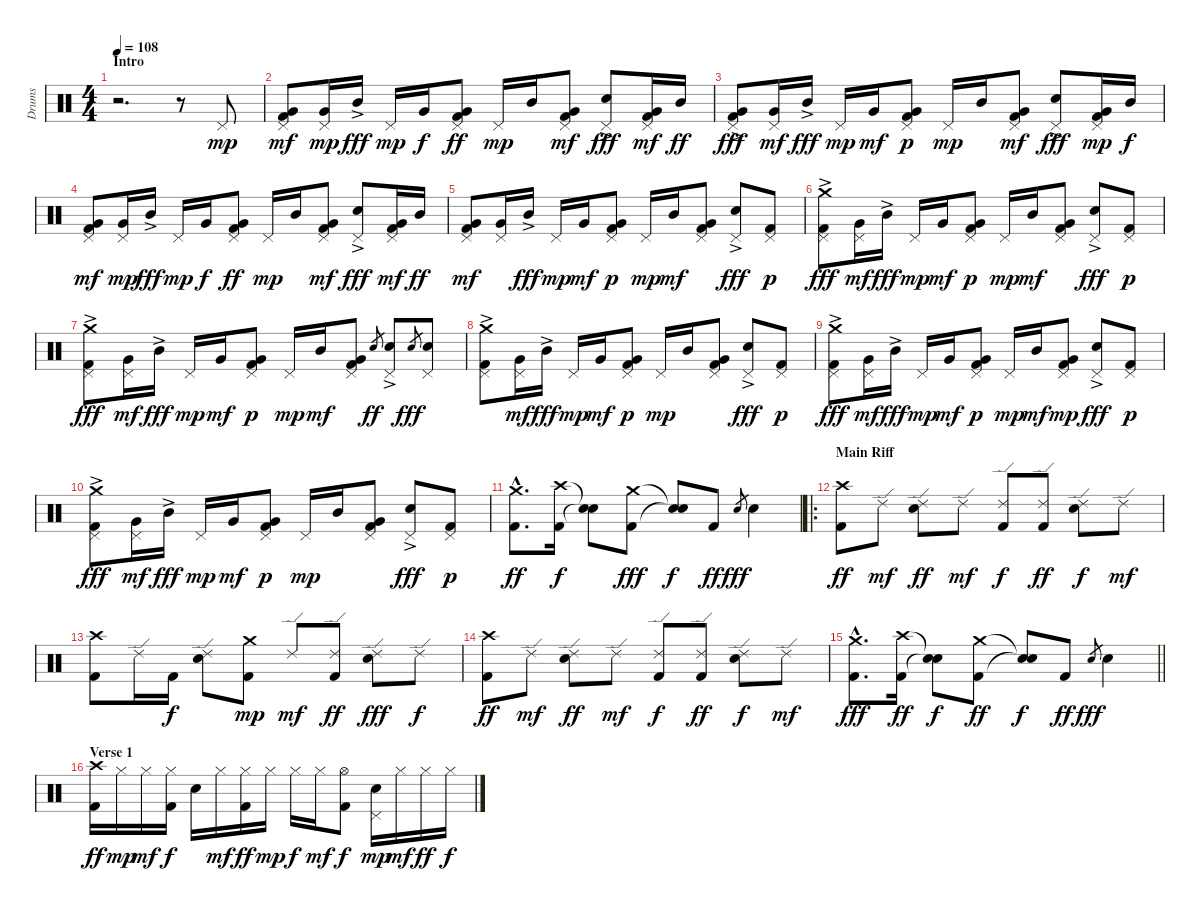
\track ("Drums" "Drums") {instrument percussion}
\staff {score}
\articulation defaults
\ts (4 4)
\section ("" "Intro")
\tempo 108
\clef neutral
\ks c
r.2{d dy mp} r.8 "Pedal Hi-Hat (hit)".8 |
("Pedal Hi-Hat (hit)" "Very Low Tom (hit)" "Kick (hit) 2").8{dy mf} ("Pedal Hi-Hat (hit)" "Very Low Tom (hit)").16{dy mp} "Mid Tom (hit)"{ac}.16{dy fff} "Pedal Hi-Hat (hit)".16{dy mp} "Very Low Tom (hit)".16{dy f} ("Pedal Hi-Hat (hit)" "Very Low Tom (hit)" "Kick (hit) 2").8{dy ff} "Pedal Hi-Hat (hit)".16{dy mp} "Mid Tom (hit)".16 ("Pedal Hi-Hat (hit)" "Very Low Tom (hit)" "Kick (hit) 2").8{dy mf} ("Pedal Hi-Hat (hit)" "Electric Snare (hit)"{ac}).8{dy fff} ("Pedal Hi-Hat (hit)" "Very Low Tom (hit)" "Kick (hit) 2").16{dy mf} "Mid Tom (hit)".16{dy ff} |
("Pedal Hi-Hat (hit)" "Very Low Tom (hit)"{ac} "Kick (hit) 2").8{dy fff} ("Pedal Hi-Hat (hit)" "Very Low Tom (hit)").16{dy mf} "Mid Tom (hit)"{ac}.16{dy fff} "Pedal Hi-Hat (hit)".16{dy mp} "Very Low Tom (hit)".16{dy mf} ("Pedal Hi-Hat (hit)" "Very Low Tom (hit)" "Kick (hit) 2").8{dy p} "Pedal Hi-Hat (hit)".16{dy mp} "Mid Tom (hit)".16 ("Pedal Hi-Hat (hit)" "Very Low Tom (hit)" "Kick (hit) 2").8{dy mf} ("Pedal Hi-Hat (hit)" "Electric Snare (hit)"{ac}).8{dy fff} ("Pedal Hi-Hat (hit)" "Very Low Tom (hit)" "Kick (hit) 2").16{dy mp} "Mid Tom (hit)".16{dy f} |
("Pedal Hi-Hat (hit)" "Very Low Tom (hit)" "Kick (hit) 2").8{dy mf} ("Pedal Hi-Hat (hit)" "Very Low Tom (hit)").16{dy mp} "Mid Tom (hit)"{ac}.16{dy fff} "Pedal Hi-Hat (hit)".16{dy mp} "Very Low Tom (hit)".16{dy f} ("Pedal Hi-Hat (hit)" "Very Low Tom (hit)" "Kick (hit) 2").8{dy ff} "Pedal Hi-Hat (hit)".16{dy mp} "Mid Tom (hit)".16 ("Pedal Hi-Hat (hit)" "Very Low Tom (hit)" "Kick (hit) 2").8{dy mf} ("Pedal Hi-Hat (hit)" "Electric Snare (hit)"{ac}).8{dy fff} ("Pedal Hi-Hat (hit)" "Very Low Tom (hit)" "Kick (hit) 2").16{dy mf} "Mid Tom (hit)".16{dy ff} |
("Pedal Hi-Hat (hit)" "Very Low Tom (hit)" "Kick (hit) 2").8{dy mf} ("Pedal Hi-Hat (hit)" "Very Low Tom (hit)").16 "Mid Tom (hit)"{ac}.16{dy fff} "Pedal Hi-Hat (hit)".16{dy mp} "Very Low Tom (hit)".16{dy mf} ("Pedal Hi-Hat (hit)" "Very Low Tom (hit)" "Kick (hit) 2").8{dy p} "Pedal Hi-Hat (hit)".16{dy mp} "Mid Tom (hit)".16{dy mf} ("Pedal Hi-Hat (hit)" "Very Low Tom (hit)" "Kick (hit) 2").8 ("Pedal Hi-Hat (hit)" "Electric Snare (hit)"{ac}).8{dy fff} ("Pedal Hi-Hat (hit)" "Kick (hit) 2").8{dy p} |
("Pedal Hi-Hat (hit)" "Crash medium (hit)"{ac} "Kick (hit) 2").8{dy fff} ("Pedal Hi-Hat (hit)" "Very Low Tom (hit)").16{dy mf} "Mid Tom (hit)"{ac}.16{dy fff} "Pedal Hi-Hat (hit)".16{dy mp} "Very Low Tom (hit)".16{dy mf} ("Pedal Hi-Hat (hit)" "Very Low Tom (hit)" "Kick (hit) 2").8{dy p} "Pedal Hi-Hat (hit)".16{dy mp} "Mid Tom (hit)".16{dy mf} ("Pedal Hi-Hat (hit)" "Very Low Tom (hit)" "Kick (hit) 2").8 ("Pedal Hi-Hat (hit)" "Electric Snare (hit)"{ac}).8{dy fff} ("Pedal Hi-Hat (hit)" "Kick (hit) 2").8{dy p} |
("Pedal Hi-Hat (hit)" "Crash medium (hit)"{ac} "Kick (hit) 2").8{dy fff} ("Pedal Hi-Hat (hit)" "Very Low Tom (hit)").16{dy mf} "Mid Tom (hit)"{ac}.16{dy fff} "Pedal Hi-Hat (hit)".16{dy mp} "Very Low Tom (hit)".16{dy mf} ("Pedal Hi-Hat (hit)" "Very Low Tom (hit)" "Kick (hit) 2").8{dy p} "Pedal Hi-Hat (hit)".16{dy mp} "Mid Tom (hit)".16{dy mf} ("Pedal Hi-Hat (hit)" "Very Low Tom (hit)" "Kick (hit) 2").8 "Electric Snare (hit)"{sl}.8{gr dy ff} ("Pedal Hi-Hat (hit)" "Electric Snare (hit)"{ac}).8 "Electric Snare (hit)"{sl}.8{gr dy fff} ("Pedal Hi-Hat (hit)" "Electric Snare (hit)").8 |
("Pedal Hi-Hat (hit)" "Crash medium (hit)"{ac} "Kick (hit) 2").8 ("Pedal Hi-Hat (hit)" "Very Low Tom (hit)").16{dy mf} "Mid Tom (hit)"{ac}.16{dy fff} "Pedal Hi-Hat (hit)".16{dy mp} "Very Low Tom (hit)".16{dy mf} ("Pedal Hi-Hat (hit)" "Very Low Tom (hit)" "Kick (hit) 2").8{dy p} "Pedal Hi-Hat (hit)".16{dy mp} "Mid Tom (hit)".16 ("Pedal Hi-Hat (hit)" "Very Low Tom (hit)" "Kick (hit) 2").8 ("Pedal Hi-Hat (hit)" "Electric Snare (hit)"{ac}).8{dy fff} ("Pedal Hi-Hat (hit)" "Kick (hit) 2").8{dy p} |
("Pedal Hi-Hat (hit)" "Crash medium (hit)"{ac} "Kick (hit) 2").8{dy fff} ("Pedal Hi-Hat (hit)" "Very Low Tom (hit)").16{dy mf} "Mid Tom (hit)"{ac}.16{dy fff} "Pedal Hi-Hat (hit)".16{dy mp} "Very Low Tom (hit)".16{dy mf} ("Pedal Hi-Hat (hit)" "Very Low Tom (hit)" "Kick (hit) 2").8{dy p} "Pedal Hi-Hat (hit)".16{dy mp} "Mid Tom (hit)".16{dy mf} ("Pedal Hi-Hat (hit)" "Very Low Tom (hit)" "Kick (hit) 2").8{dy mp} ("Pedal Hi-Hat (hit)" "Electric Snare (hit)"{ac}).8{dy fff} ("Pedal Hi-Hat (hit)" "Kick (hit) 2").8{dy p} |
("Pedal Hi-Hat (hit)" "Crash medium (hit)"{ac} "Kick (hit) 2").8{dy fff} ("Pedal Hi-Hat (hit)" "Very Low Tom (hit)").16{dy mf} "Mid Tom (hit)"{ac}.16{dy fff} "Pedal Hi-Hat (hit)".16{dy mp} "Very Low Tom (hit)".16{dy mf} ("Pedal Hi-Hat (hit)" "Very Low Tom (hit)" "Kick (hit) 2").8{dy p} "Pedal Hi-Hat (hit)".16{dy mp} "Mid Tom (hit)".16 ("Pedal Hi-Hat (hit)" "Very Low Tom (hit)" "Kick (hit) 2").8 ("Pedal Hi-Hat (hit)" "Electric Snare (hit)"{ac}).8{dy fff} ("Pedal Hi-Hat (hit)" "Kick (hit) 2").8{dy p} |
("Crash medium (hit)"{hac} "Kick (hit) 2"{hac}).8{d dy ff} ("Crash high (hit)" "Kick (hit) 2").16{dy f} ("Snare (hit)"{t} "Snare (hit)"{t}).8 ("Crash medium (hit)" "Kick (hit) 2").8{dy fff} ("Snare (hit)"{t} "Snare (hit)"{t}).8{dy f} "Kick (hit) 2".8{dy ff} "Electric Snare (hit)"{sl}.8{gr dy fff} "Electric Snare (hit)".4 |
\ro
\section ("" "Main Riff")
("Crash high (hit)" "Kick (hit) 2").8{dy ff} "Ride (edge) 2".8{dy mf} ("Ride (edge) 2" "Electric Snare (hit)").8{dy ff} "Ride (edge) 2".8{dy mf} ("Ride (edge) 2" "Kick (hit) 2").8{dy f} ("Ride (edge) 2" "Kick (hit) 2").8{dy ff} ("Ride (edge) 2" "Electric Snare (hit)").8{dy f} "Ride (edge) 2".8{dy mf} |
("Crash high (hit)" "Kick (hit) 2").8 "Ride (edge) 2".16 "Kick (hit) 2".16{dy f} ("Ride (edge) 2" "Electric Snare (hit)").8 ("Crash medium (hit)" "Kick (hit) 2").8{dy mp} "Ride (edge) 2".8{dy mf} ("Ride (edge) 2" "Kick (hit) 2").8{dy ff} ("Ride (edge) 2" "Electric Snare (hit)").8{dy fff} "Ride (edge) 2".8{dy f} |
("Crash high (hit)" "Kick (hit) 2").8{dy ff} "Ride (edge) 2".8{dy mf} ("Ride (edge) 2" "Electric Snare (hit)").8{dy ff} "Ride (edge) 2".8{dy mf} ("Ride (edge) 2" "Kick (hit) 2").8{dy f} ("Ride (edge) 2" "Kick (hit) 2").8{dy ff} ("Ride (edge) 2" "Electric Snare (hit)").8{dy f} "Ride (edge) 2".8{dy mf} |
\barLineRight lightlight
("Crash medium (hit)"{hac} "Kick (hit) 2"{hac}).8{d dy fff} ("Crash high (hit)" "Kick (hit) 2").16{dy ff} ("Snare (hit)"{t} "Snare (hit)"{t}).8{dy f} ("Crash medium (hit)" "Kick (hit) 2").8{dy ff} ("Snare (hit)"{t} "Snare (hit)"{t}).8{dy f} "Kick (hit) 2".8{dy ff} "Electric Snare (hit)".8{gr dy fff} "Electric Snare (hit)".4 |
\section ("" "Verse 1")
("Crash high (hit)" "Kick (hit) 2").16{dy ff} "Hi-Hat (closed)".16{dy mp} "Hi-Hat (closed)".16{dy mf} ("Hi-Hat (closed)" "Kick (hit) 2").16{dy f} "Electric Snare (hit)".16 "Hi-Hat (closed)".16{dy mf} ("Hi-Hat (closed)" "Kick (hit) 2").16{dy ff} "Hi-Hat (closed)".16{dy mp} "Hi-Hat (closed)".16{dy f} "Hi-Hat (closed)".16{dy mf} ("Hi-Hat (open)" "Kick (hit) 2").8{dy f} ("Electric Snare (hit)" "Pedal Hi-Hat (hit)").16{dy mp} "Hi-Hat (closed)".16{dy mf} "Hi-Hat (closed)".16{dy ff} "Hi-Hat (closed)".16{dy f}
